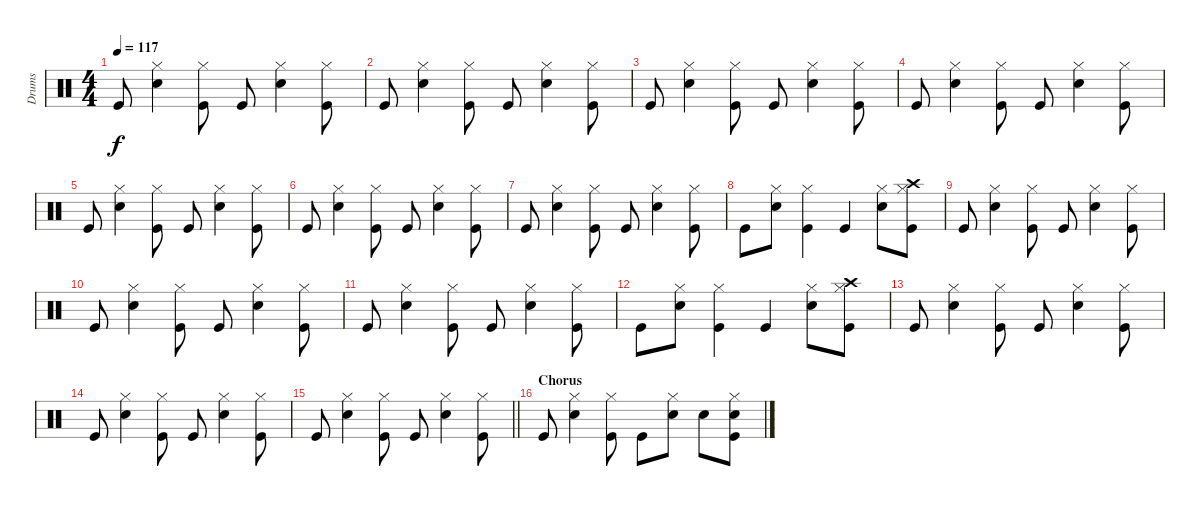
\track ("Drums" "Drums") {instrument percussion}
\staff {score}
\articulation defaults
\ts (4 4)
\tempo 117
\clef neutral
\ks c "Kick (hit)".8{dy f}
("Electric Snare (hit)" "Hi-Hat (closed)").4 ("Kick (hit)" "Hi-Hat (closed)").8 "Kick (hit)".8 ("Electric Snare (hit)" "Hi-Hat (closed)").4 ("Kick (hit)" "Hi-Hat (closed)").8 |
"Kick (hit)".8 ("Electric Snare (hit)" "Hi-Hat (closed)").4 ("Kick (hit)" "Hi-Hat (closed)").8 "Kick (hit)".8 ("Electric Snare (hit)" "Hi-Hat (closed)").4 ("Kick (hit)" "Hi-Hat (closed)").8 |
"Kick (hit)".8 ("Electric Snare (hit)" "Hi-Hat (closed)").4 ("Kick (hit)" "Hi-Hat (closed)").8 "Kick (hit)".8 ("Electric Snare (hit)" "Hi-Hat (closed)").4 ("Kick (hit)" "Hi-Hat (closed)").8 |
"Kick (hit)".8 ("Electric Snare (hit)" "Hi-Hat (closed)").4 ("Kick (hit)" "Hi-Hat (closed)").8 "Kick (hit)".8 ("Electric Snare (hit)" "Hi-Hat (closed)").4 ("Kick (hit)" "Hi-Hat (closed)").8 |
"Kick (hit)".8 ("Electric Snare (hit)" "Hi-Hat (closed)").4 ("Kick (hit)" "Hi-Hat (closed)").8 "Kick (hit)".8 ("Electric Snare (hit)" "Hi-Hat (closed)").4 ("Kick (hit)" "Hi-Hat (closed)").8 |
"Kick (hit)".8 ("Electric Snare (hit)" "Hi-Hat (closed)").4 ("Kick (hit)" "Hi-Hat (closed)").8 "Kick (hit)".8 ("Electric Snare (hit)" "Hi-Hat (closed)").4 ("Kick (hit)" "Hi-Hat (closed)").8 |
"Kick (hit)".8 ("Electric Snare (hit)" "Hi-Hat (closed)").4 ("Kick (hit)" "Hi-Hat (closed)").8 "Kick (hit)".8 ("Electric Snare (hit)" "Hi-Hat (closed)").4 ("Kick (hit)" "Hi-Hat (closed)").8 |
"Kick (hit)".8 ("Electric Snare (hit)" "Hi-Hat (closed)").8 ("Kick (hit)" "Hi-Hat (closed)").4 "Kick (hit)".4 ("Electric Snare (hit)" "Hi-Hat (closed)").8 ("Crash high (hit)" "Kick (hit)" "Hi-Hat (closed)").8 |
"Kick (hit)".8 ("Electric Snare (hit)" "Hi-Hat (closed)").4 ("Kick (hit)" "Hi-Hat (closed)").8 "Kick (hit)".8 ("Electric Snare (hit)" "Hi-Hat (closed)").4 ("Kick (hit)" "Hi-Hat (closed)").8 |
"Kick (hit)".8 ("Electric Snare (hit)" "Hi-Hat (closed)").4 ("Kick (hit)" "Hi-Hat (closed)").8 "Kick (hit)".8 ("Electric Snare (hit)" "Hi-Hat (closed)").4 ("Kick (hit)" "Hi-Hat (closed)").8 |
"Kick (hit)".8 ("Electric Snare (hit)" "Hi-Hat (closed)").4 ("Kick (hit)" "Hi-Hat (closed)").8 "Kick (hit)".8 ("Electric Snare (hit)" "Hi-Hat (closed)").4 ("Kick (hit)" "Hi-Hat (closed)").8 |
"Kick (hit)".8 ("Electric Snare (hit)" "Hi-Hat (closed)").8 ("Kick (hit)" "Hi-Hat (closed)").4 "Kick (hit)".4 ("Electric Snare (hit)" "Hi-Hat (closed)").8 ("Crash high (hit)" "Kick (hit)" "Hi-Hat (closed)").8 |
"Kick (hit)".8 ("Electric Snare (hit)" "Hi-Hat (closed)").4 ("Kick (hit)" "Hi-Hat (closed)").8 "Kick (hit)".8 ("Electric Snare (hit)" "Hi-Hat (closed)").4 ("Kick (hit)" "Hi-Hat (closed)").8 |
"Kick (hit)".8 ("Electric Snare (hit)" "Hi-Hat (closed)").4 ("Kick (hit)" "Hi-Hat (closed)").8 "Kick (hit)".8 ("Electric Snare (hit)" "Hi-Hat (closed)").4 ("Kick (hit)" "Hi-Hat (closed)").8 |
\barLineRight lightlight "Kick (hit)".8
("Electric Snare (hit)" "Hi-Hat (closed)").4 ("Kick (hit)" "Hi-Hat (closed)").8 "Kick (hit)".8 ("Electric Snare (hit)" "Hi-Hat (closed)").4 ("Kick (hit)" "Hi-Hat (closed)").8 |
\section ("" "Chorus")
"Kick (hit)".8 ("Electric Snare (hit)" "Hi-Hat (closed)").4 ("Kick (hit)" "Hi-Hat (closed)").8 "Kick (hit)".8 ("Electric Snare (hit)" "Hi-Hat (closed)").8 "Electric Snare (hit)".8 ("Electric Snare (hit)" "Kick (hit)" "Hi-Hat (closed)").8
